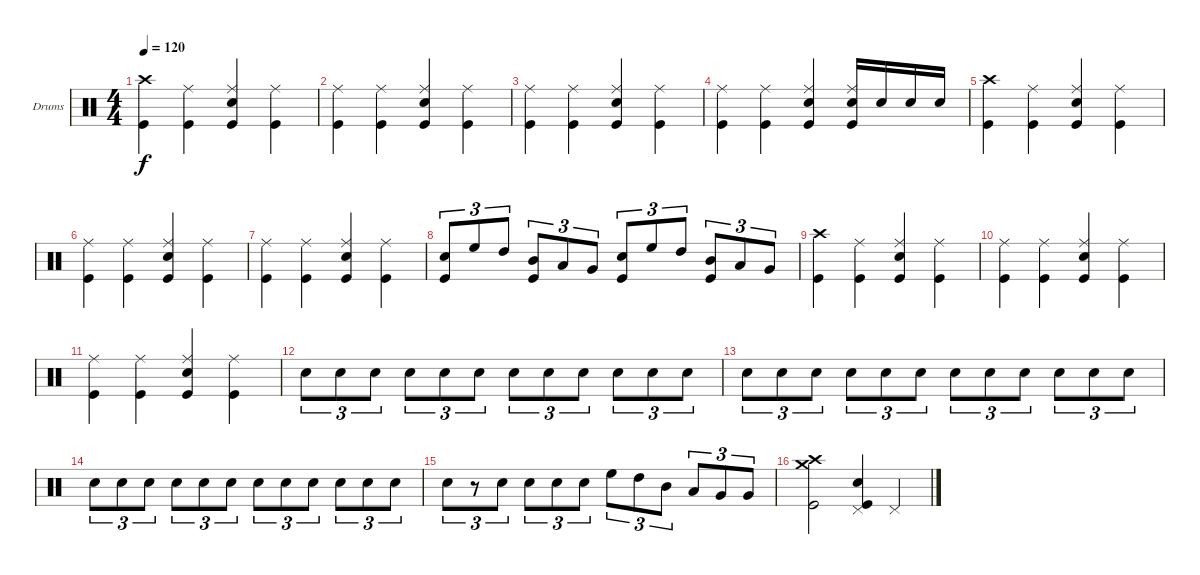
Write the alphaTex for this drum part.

\bracketExtendMode groupsimilarinstruments
\firstSystemTrackNameOrientation horizontal
\otherSystemsTrackNameOrientation horizontal
\track ("Drumkit" "Drums") {instrument percussion}
\staff {score}
\articulation defaults
\ts (4 4)
\tempo 120
\clef neutral
\ks c
("Crash high (hit)" "Kick (hit)").4{dy f} ("Ride (middle)" "Kick (hit)").4 ("Ride (middle)" "Snare (hit) 2" "Kick (hit)").4 ("Ride (middle)" "Kick (hit)").4 |
("Ride (middle)" "Kick (hit)").4 ("Ride (middle)" "Kick (hit)").4 ("Ride (middle)" "Snare (hit) 2" "Kick (hit)").4 ("Ride (middle)" "Kick (hit)").4 |
("Ride (middle)" "Kick (hit)").4 ("Ride (middle)" "Kick (hit)").4 ("Ride (middle)" "Snare (hit) 2" "Kick (hit)").4 ("Ride (middle)" "Kick (hit)").4 |
("Ride (middle)" "Kick (hit)").4 ("Ride (middle)" "Kick (hit)").4 ("Ride (middle)" "Snare (hit) 2" "Kick (hit)").4 ("Ride (middle)" "Snare (hit) 2" "Kick (hit)").16 "Snare (hit) 2".16 "Snare (hit) 2".16 "Snare (hit) 2".16 |
("Crash high (hit)" "Kick (hit)").4 ("Ride (middle)" "Kick (hit)").4 ("Ride (middle)" "Snare (hit) 2" "Kick (hit)").4 ("Ride (middle)" "Kick (hit)").4 |
("Ride (middle)" "Kick (hit)").4 ("Ride (middle)" "Kick (hit)").4 ("Ride (middle)" "Snare (hit) 2" "Kick (hit)").4 ("Ride (middle)" "Kick (hit)").4 |
("Ride (middle)" "Kick (hit)").4 ("Ride (middle)" "Kick (hit)").4 ("Ride (middle)" "Snare (hit) 2" "Kick (hit)").4 ("Ride (middle)" "Kick (hit)").4 |
("Snare (hit) 2" "Kick (hit)").8{tu (3 2)} "High Floor Tom (hit)".8{tu (3 2)} "High Tom (hit)".8{tu (3 2)} ("Mid Tom (hit)" "Kick (hit)").8{tu (3 2)} "Low Tom (hit)".8{tu (3 2)} "Very Low Tom (hit)".8{tu (3 2)} ("Snare (hit) 2" "Kick (hit)").8{tu (3 2)} "High Floor Tom (hit)".8{tu (3 2)} "High Tom (hit)".8{tu (3 2)} ("Mid Tom (hit)" "Kick (hit)").8{tu (3 2)} "Low Tom (hit)".8{tu (3 2)} "Very Low Tom (hit)".8{tu (3 2)} |
("Crash high (hit)" "Kick (hit)").4 ("Ride (middle)" "Kick (hit)").4 ("Ride (middle)" "Snare (hit) 2" "Kick (hit)").4 ("Ride (middle)" "Kick (hit)").4 |
("Ride (middle)" "Kick (hit)").4 ("Ride (middle)" "Kick (hit)").4 ("Ride (middle)" "Snare (hit) 2" "Kick (hit)").4 ("Ride (middle)" "Kick (hit)").4 |
("Ride (middle)" "Kick (hit)").4 ("Ride (middle)" "Kick (hit)").4 ("Ride (middle)" "Snare (hit) 2" "Kick (hit)").4 ("Ride (middle)" "Kick (hit)").4 |
"Snare (hit) 2".8{tu (3 2)} "Snare (hit) 2".8{tu (3 2)} "Snare (hit) 2".8{tu (3 2)} "Snare (hit) 2".8{tu (3 2)} "Snare (hit) 2".8{tu (3 2)} "Snare (hit) 2".8{tu (3 2)} "Snare (hit) 2".8{tu (3 2)} "Snare (hit) 2".8{tu (3 2)} "Snare (hit) 2".8{tu (3 2)} "Snare (hit) 2".8{tu (3 2)} "Snare (hit) 2".8{tu (3 2)} "Snare (hit) 2".8{tu (3 2)} |
"Snare (hit) 2".8{tu (3 2)} "Snare (hit) 2".8{tu (3 2)} "Snare (hit) 2".8{tu (3 2)} "Snare (hit) 2".8{tu (3 2)} "Snare (hit) 2".8{tu (3 2)} "Snare (hit) 2".8{tu (3 2)} "Snare (hit) 2".8{tu (3 2)} "Snare (hit) 2".8{tu (3 2)} "Snare (hit) 2".8{tu (3 2)} "Snare (hit) 2".8{tu (3 2)} "Snare (hit) 2".8{tu (3 2)} "Snare (hit) 2".8{tu (3 2)} |
"Snare (hit) 2".8{tu (3 2)} "Snare (hit) 2".8{tu (3 2)} "Snare (hit) 2".8{tu (3 2)} "Snare (hit) 2".8{tu (3 2)} "Snare (hit) 2".8{tu (3 2)} "Snare (hit) 2".8{tu (3 2)} "Snare (hit) 2".8{tu (3 2)} "Snare (hit) 2".8{tu (3 2)} "Snare (hit) 2".8{tu (3 2)} "Snare (hit) 2".8{tu (3 2)} "Snare (hit) 2".8{tu (3 2)} "Snare (hit) 2".8{tu (3 2)} |
"Snare (hit) 2".8{tu (3 2)} r.8{tu (3 2)} "Snare (hit) 2".8{tu (3 2)} "Snare (hit) 2".8{tu (3 2)} "Snare (hit) 2".8{tu (3 2)} "Snare (hit) 2".8{tu (3 2)} "High Floor Tom (hit)".8{tu (3 2)} "High Tom (hit)".8{tu (3 2)} "Mid Tom (hit)".8{tu (3 2)} "Low Tom (hit)".8{tu (3 2)} "Very Low Tom (hit)".8{tu (3 2)} "Very Low Tom (hit)".8{tu (3 2)} |
("Crash medium (hit)" "Crash high (hit)" "Kick (hit)").2 ("Pedal Hi-Hat (hit)" "Snare (hit) 2" "Kick (hit)").4 "Pedal Hi-Hat (hit)".4
